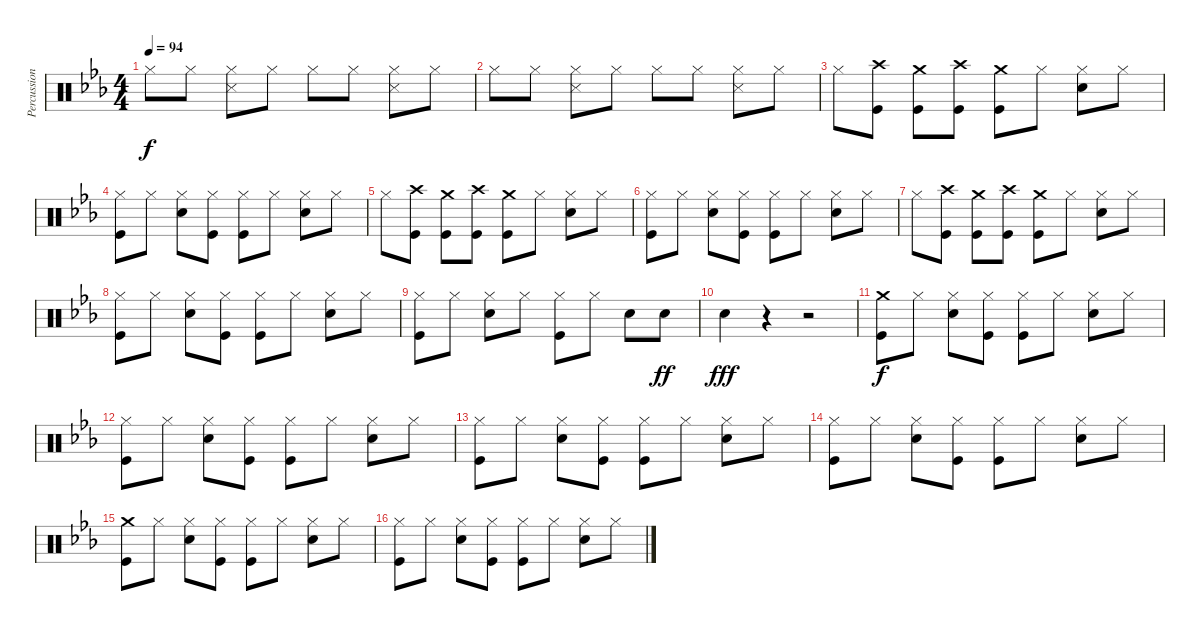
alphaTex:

\track ("Percussion" "Percussion") {instrument percussion}
\staff {score}
\articulation defaults
\ts (4 4)
\tempo 94
\clef neutral
\ks eb "Hi-Hat (closed)".8{dy f} "Hi-Hat (closed)".8
("Hi-Hat (closed)" "Snare (side stick) 3").8 "Hi-Hat (closed)".8 "Hi-Hat (closed)".8 "Hi-Hat (closed)".8 ("Hi-Hat (closed)" "Snare (side stick) 3").8 "Hi-Hat (closed)".8 |
"Hi-Hat (closed)".8 "Hi-Hat (closed)".8 ("Hi-Hat (closed)" "Snare (side stick) 3").8 "Hi-Hat (closed)".8 "Hi-Hat (closed)".8 "Hi-Hat (closed)".8 ("Hi-Hat (closed)" "Snare (side stick) 3").8 "Hi-Hat (closed)".8 |
"Hi-Hat (closed)".8 ("Crash high (hit)" "Kick (hit)").8 ("Crash medium (hit)" "Kick (hit)").8 ("Crash high (hit)" "Kick (hit)").8 ("Crash medium (hit)" "Kick (hit)").8 "Hi-Hat (closed)".8 ("Hi-Hat (closed)" "Snare (hit) 2").8 "Hi-Hat (closed)".8 |
("Hi-Hat (closed)" "Kick (hit)").8 "Hi-Hat (closed)".8 ("Hi-Hat (closed)" "Snare (hit) 2").8 ("Hi-Hat (closed)" "Kick (hit)").8 ("Hi-Hat (closed)" "Kick (hit)").8 "Hi-Hat (closed)".8 ("Hi-Hat (closed)" "Snare (hit) 2").8 "Hi-Hat (closed)".8 |
"Hi-Hat (closed)".8 ("Crash high (hit)" "Kick (hit)").8 ("Crash medium (hit)" "Kick (hit)").8 ("Crash high (hit)" "Kick (hit)").8 ("Crash medium (hit)" "Kick (hit)").8 "Hi-Hat (closed)".8 ("Hi-Hat (closed)" "Snare (hit) 2").8 "Hi-Hat (closed)".8 |
("Hi-Hat (closed)" "Kick (hit)").8 "Hi-Hat (closed)".8 ("Hi-Hat (closed)" "Snare (hit) 2").8 ("Hi-Hat (closed)" "Kick (hit)").8 ("Hi-Hat (closed)" "Kick (hit)").8 "Hi-Hat (closed)".8 ("Hi-Hat (closed)" "Snare (hit) 2").8 "Hi-Hat (closed)".8 |
"Hi-Hat (closed)".8 ("Crash high (hit)" "Kick (hit)").8 ("Crash medium (hit)" "Kick (hit)").8 ("Crash high (hit)" "Kick (hit)").8 ("Crash medium (hit)" "Kick (hit)").8 "Hi-Hat (closed)".8 ("Hi-Hat (closed)" "Snare (hit) 2").8 "Hi-Hat (closed)".8 |
("Hi-Hat (closed)" "Kick (hit)").8 "Hi-Hat (closed)".8 ("Hi-Hat (closed)" "Snare (hit) 2").8 ("Hi-Hat (closed)" "Kick (hit)").8 ("Hi-Hat (closed)" "Kick (hit)").8 "Hi-Hat (closed)".8 ("Hi-Hat (closed)" "Snare (hit) 2").8 "Hi-Hat (closed)".8 |
("Hi-Hat (closed)" "Kick (hit)").8 "Hi-Hat (closed)".8 ("Hi-Hat (closed)" "Snare (hit) 2").8 "Hi-Hat (closed)".8 ("Hi-Hat (closed)" "Kick (hit)").8 "Hi-Hat (closed)".8 "Snare (hit) 2".8 "Snare (hit) 2".8{dy ff} |
"Snare (hit) 2".4{dy fff} r.4 r.2 |
("Crash medium (hit)" "Kick (hit)").8{dy f} "Hi-Hat (closed)".8 ("Hi-Hat (closed)" "Snare (hit) 2").8 ("Hi-Hat (closed)" "Kick (hit)").8 ("Hi-Hat (closed)" "Kick (hit)").8 "Hi-Hat (closed)".8 ("Hi-Hat (closed)" "Snare (hit) 2").8 "Hi-Hat (closed)".8 |
("Hi-Hat (closed)" "Kick (hit)").8 "Hi-Hat (closed)".8 ("Hi-Hat (closed)" "Snare (hit) 2").8 ("Hi-Hat (closed)" "Kick (hit)").8 ("Hi-Hat (closed)" "Kick (hit)").8 "Hi-Hat (closed)".8 ("Hi-Hat (closed)" "Snare (hit) 2").8 "Hi-Hat (closed)".8 |
("Hi-Hat (closed)" "Kick (hit)").8 "Hi-Hat (closed)".8 ("Hi-Hat (closed)" "Snare (hit) 2").8 ("Hi-Hat (closed)" "Kick (hit)").8 ("Hi-Hat (closed)" "Kick (hit)").8 "Hi-Hat (closed)".8 ("Hi-Hat (closed)" "Snare (hit) 2").8 "Hi-Hat (closed)".8 |
("Hi-Hat (closed)" "Kick (hit)").8 "Hi-Hat (closed)".8 ("Hi-Hat (closed)" "Snare (hit) 2").8 ("Hi-Hat (closed)" "Kick (hit)").8 ("Hi-Hat (closed)" "Kick (hit)").8 "Hi-Hat (closed)".8 ("Hi-Hat (closed)" "Snare (hit) 2").8 "Hi-Hat (closed)".8 |
("Crash medium (hit)" "Kick (hit)").8 "Hi-Hat (closed)".8 ("Hi-Hat (closed)" "Snare (hit) 2").8 ("Hi-Hat (closed)" "Kick (hit)").8 ("Hi-Hat (closed)" "Kick (hit)").8 "Hi-Hat (closed)".8 ("Hi-Hat (closed)" "Snare (hit) 2").8 "Hi-Hat (closed)".8 |
("Hi-Hat (closed)" "Kick (hit)").8 "Hi-Hat (closed)".8 ("Hi-Hat (closed)" "Snare (hit) 2").8 ("Hi-Hat (closed)" "Kick (hit)").8 ("Hi-Hat (closed)" "Kick (hit)").8 "Hi-Hat (closed)".8 ("Hi-Hat (closed)" "Snare (hit) 2").8 "Hi-Hat (closed)".8
